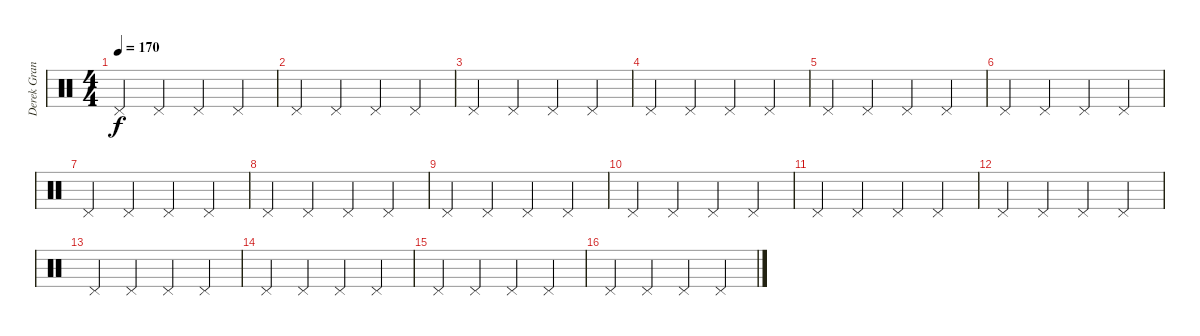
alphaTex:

\track ("Derek Grant" "Derek Gran") {instrument percussion}
\staff {score}
\articulation defaults
\ts (4 4)
\tempo 170
\clef neutral
\ks c "Pedal Hi-Hat (hit)".4{dy f} "Pedal Hi-Hat (hit)".4 "Pedal Hi-Hat (hit)".4 "Pedal Hi-Hat (hit)".4
|
"Pedal Hi-Hat (hit)".4 "Pedal Hi-Hat (hit)".4 "Pedal Hi-Hat (hit)".4 "Pedal Hi-Hat (hit)".4 |
"Pedal Hi-Hat (hit)".4 "Pedal Hi-Hat (hit)".4 "Pedal Hi-Hat (hit)".4 "Pedal Hi-Hat (hit)".4 |
"Pedal Hi-Hat (hit)".4 "Pedal Hi-Hat (hit)".4 "Pedal Hi-Hat (hit)".4 "Pedal Hi-Hat (hit)".4 |
"Pedal Hi-Hat (hit)".4 "Pedal Hi-Hat (hit)".4 "Pedal Hi-Hat (hit)".4 "Pedal Hi-Hat (hit)".4 |
"Pedal Hi-Hat (hit)".4 "Pedal Hi-Hat (hit)".4 "Pedal Hi-Hat (hit)".4 "Pedal Hi-Hat (hit)".4 |
"Pedal Hi-Hat (hit)".4 "Pedal Hi-Hat (hit)".4 "Pedal Hi-Hat (hit)".4 "Pedal Hi-Hat (hit)".4 |
"Pedal Hi-Hat (hit)".4 "Pedal Hi-Hat (hit)".4 "Pedal Hi-Hat (hit)".4 "Pedal Hi-Hat (hit)".4 |
"Pedal Hi-Hat (hit)".4 "Pedal Hi-Hat (hit)".4 "Pedal Hi-Hat (hit)".4 "Pedal Hi-Hat (hit)".4 |
"Pedal Hi-Hat (hit)".4 "Pedal Hi-Hat (hit)".4 "Pedal Hi-Hat (hit)".4 "Pedal Hi-Hat (hit)".4 |
"Pedal Hi-Hat (hit)".4 "Pedal Hi-Hat (hit)".4 "Pedal Hi-Hat (hit)".4 "Pedal Hi-Hat (hit)".4 |
"Pedal Hi-Hat (hit)".4 "Pedal Hi-Hat (hit)".4 "Pedal Hi-Hat (hit)".4 "Pedal Hi-Hat (hit)".4 |
"Pedal Hi-Hat (hit)".4 "Pedal Hi-Hat (hit)".4 "Pedal Hi-Hat (hit)".4 "Pedal Hi-Hat (hit)".4 |
"Pedal Hi-Hat (hit)".4 "Pedal Hi-Hat (hit)".4 "Pedal Hi-Hat (hit)".4 "Pedal Hi-Hat (hit)".4 |
"Pedal Hi-Hat (hit)".4 "Pedal Hi-Hat (hit)".4 "Pedal Hi-Hat (hit)".4 "Pedal Hi-Hat (hit)".4 |
"Pedal Hi-Hat (hit)".4 "Pedal Hi-Hat (hit)".4 "Pedal Hi-Hat (hit)".4 "Pedal Hi-Hat (hit)".4
